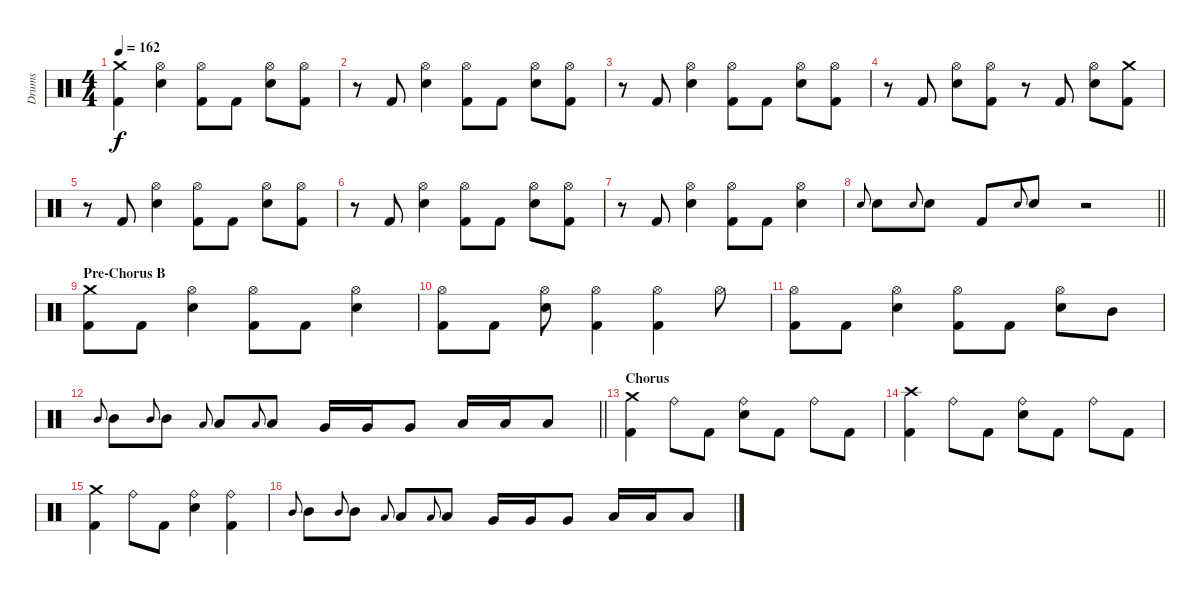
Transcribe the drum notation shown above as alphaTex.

\track ("Drums" "Drums") {instrument percussion}
\staff {score}
\articulation defaults
\ts (4 4)
\tempo 162
\clef neutral
\ks c
("Crash medium (hit)" "Kick (hit) 2").4{dy f} ("Hi-Hat (open)" "Snare (hit) 2").4 ("Hi-Hat (open)" "Kick (hit) 2").8 "Kick (hit) 2".8 ("Hi-Hat (open)" "Snare (hit) 2").8 ("Hi-Hat (open)" "Kick (hit) 2").8 |
r.8 "Kick (hit) 2".8 ("Hi-Hat (open)" "Snare (hit) 2").4 ("Hi-Hat (open)" "Kick (hit) 2").8 "Kick (hit) 2".8 ("Hi-Hat (open)" "Snare (hit) 2").8 ("Hi-Hat (open)" "Kick (hit) 2").8 |
r.8 "Kick (hit) 2".8 ("Hi-Hat (open)" "Snare (hit) 2").4 ("Hi-Hat (open)" "Kick (hit) 2").8 "Kick (hit) 2".8 ("Hi-Hat (open)" "Snare (hit) 2").8 ("Hi-Hat (open)" "Kick (hit) 2").8 |
r.8 "Kick (hit) 2".8 ("Hi-Hat (open)" "Snare (hit) 2").8 ("Hi-Hat (open)" "Kick (hit) 2").8 r.8 "Kick (hit) 2".8 ("Hi-Hat (open)" "Snare (hit) 2").8 ("Crash medium (hit)" "Kick (hit) 2").8 |
r.8 "Kick (hit) 2".8 ("Hi-Hat (open)" "Snare (hit) 2").4 ("Hi-Hat (open)" "Kick (hit) 2").8 "Kick (hit) 2".8 ("Hi-Hat (open)" "Snare (hit) 2").8 ("Hi-Hat (open)" "Kick (hit) 2").8 |
r.8 "Kick (hit) 2".8 ("Hi-Hat (open)" "Snare (hit) 2").4 ("Hi-Hat (open)" "Kick (hit) 2").8 "Kick (hit) 2".8 ("Hi-Hat (open)" "Snare (hit) 2").8 ("Hi-Hat (open)" "Kick (hit) 2").8 |
r.8 "Kick (hit) 2".8 ("Hi-Hat (open)" "Snare (hit) 2").4 ("Hi-Hat (open)" "Kick (hit) 2").8 "Kick (hit) 2".8 ("Hi-Hat (open)" "Snare (hit) 2").4 |
\barLineRight lightlight "Snare (hit) 2".8{gr onbeat} "Snare (hit) 2".8 "Snare (hit) 2".8{gr onbeat} "Snare (hit) 2".8 "Kick (hit) 2".8 "Snare (hit) 2".8{gr onbeat} "Snare (hit) 2".8
r.2 |
\section ("" "Pre-Chorus B")
("Crash medium (hit)" "Kick (hit) 2").8 "Kick (hit) 2".8 ("Hi-Hat (open)" "Snare (hit) 2").4 ("Hi-Hat (open)" "Kick (hit) 2").8 "Kick (hit) 2".8 ("Hi-Hat (open)" "Snare (hit) 2").4 |
("Hi-Hat (open)" "Kick (hit) 2").8 "Kick (hit) 2".8 ("Hi-Hat (open)" "Snare (hit) 2").8 ("Hi-Hat (open)" "Kick (hit) 2").4 ("Hi-Hat (open)" "Kick (hit) 2").4 "Hi-Hat (open)".8 |
("Hi-Hat (open)" "Kick (hit) 2").8 "Kick (hit) 2".8 ("Hi-Hat (open)" "Snare (hit) 2").4 ("Hi-Hat (open)" "Kick (hit) 2").8 "Kick (hit) 2".8 ("Hi-Hat (open)" "Snare (hit) 2").8 "Mid Tom (hit)".8 |
\barLineRight lightlight "Mid Tom (hit)".8{gr onbeat} "Mid Tom (hit)".8 "Mid Tom (hit)".8{gr onbeat} "Mid Tom (hit)".8 "Low Tom (hit)".8{gr onbeat} "Low Tom (hit)".8 "Low Tom (hit)".8{gr onbeat} "Low Tom (hit)".8 "Very Low Tom (hit)".16 "Very Low Tom (hit)".16 "Very Low Tom (hit)".8 "Low Floor Tom (hit)".16 "Low Floor Tom (hit)".16 "Low Floor Tom (hit)".8
|
\section ("" "Chorus")
("Crash medium (hit)" "Kick (hit) 2").4 "Ride (bell)".8 "Kick (hit) 2".8 ("Ride (bell)" "Snare (hit) 2").8 "Kick (hit) 2".8 "Ride (bell)".8 "Kick (hit) 2".8 |
("Crash high (hit)" "Kick (hit) 2").4 "Ride (bell)".8 "Kick (hit) 2".8 ("Ride (bell)" "Snare (hit) 2").8 "Kick (hit) 2".8 "Ride (bell)".8 "Kick (hit) 2".8 |
("Crash medium (hit)" "Kick (hit) 2").4 "Ride (bell)".8 "Kick (hit) 2".8 ("Ride (bell)" "Snare (hit) 2").4 ("Ride (bell)" "Kick (hit) 2").4 |
"Mid Tom (hit)".8{gr onbeat} "Mid Tom (hit)".8 "Mid Tom (hit)".8{gr onbeat} "Mid Tom (hit)".8 "Low Tom (hit)".8{gr onbeat} "Low Tom (hit)".8 "Low Tom (hit)".8{gr onbeat} "Low Tom (hit)".8 "Very Low Tom (hit)".16 "Very Low Tom (hit)".16 "Very Low Tom (hit)".8 "Low Floor Tom (hit)".16 "Low Floor Tom (hit)".16 "Low Floor Tom (hit)".8
